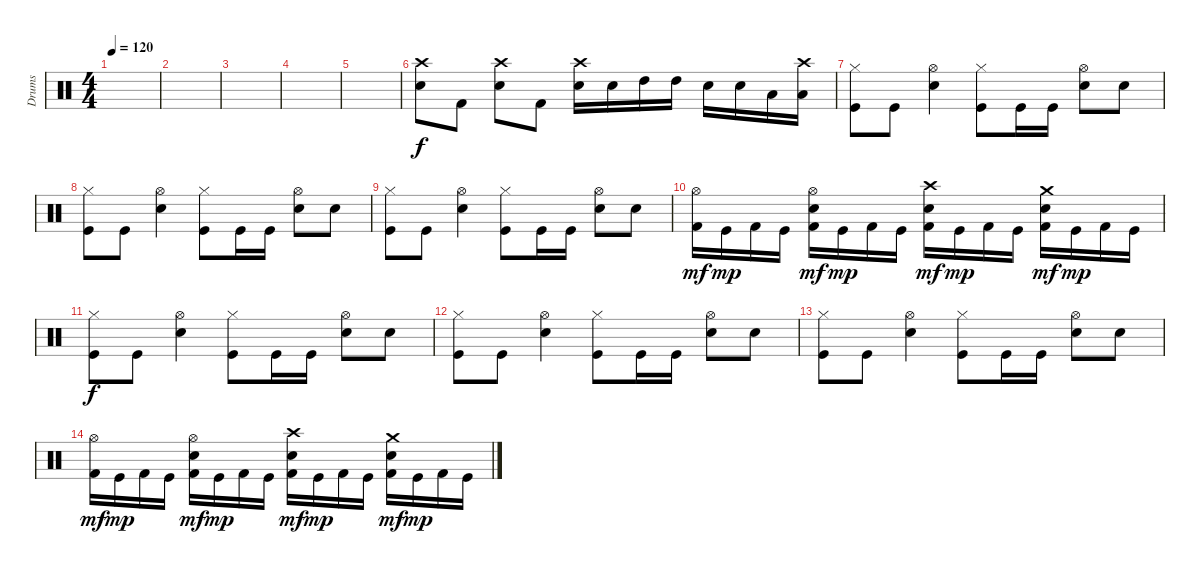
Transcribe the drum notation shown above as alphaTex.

\track ("Drums" "Drums") {instrument percussion}
\staff {score}
\articulation defaults
\ts (4 4)
\tempo 120
\clef neutral
\ks c
|
|
|
|
|
("Crash high (hit)" "Snare (hit) 2").8{dy f} "Kick (hit) 2".8 ("Crash high (hit)" "Snare (hit) 2").8 "Kick (hit) 2".8 ("Crash high (hit)" "Snare (hit) 2").16 "Snare (hit) 2".16 "High Tom (hit)".16 "High Tom (hit)".16 "Snare (hit) 2".16 "Snare (hit) 2".16 "Low Tom (hit)".16 ("Crash high (hit)" "Low Tom (hit)").16 |
("Hi-Hat (closed)" "Kick (hit)").8 "Kick (hit)".8 ("Hi-Hat (open)" "Snare (hit) 2").4 ("Hi-Hat (closed)" "Kick (hit)").8 "Kick (hit)".16 "Kick (hit)".16 ("Hi-Hat (open)" "Snare (hit) 2").8 "Snare (hit) 2".8 |
("Hi-Hat (closed)" "Kick (hit)").8 "Kick (hit)".8 ("Hi-Hat (open)" "Snare (hit) 2").4 ("Hi-Hat (closed)" "Kick (hit)").8 "Kick (hit)".16 "Kick (hit)".16 ("Hi-Hat (open)" "Snare (hit) 2").8 "Snare (hit) 2".8 |
("Hi-Hat (closed)" "Kick (hit)").8 "Kick (hit)".8 ("Hi-Hat (open)" "Snare (hit) 2").4 ("Hi-Hat (closed)" "Kick (hit)").8 "Kick (hit)".16 "Kick (hit)".16 ("Hi-Hat (open)" "Snare (hit) 2").8 "Snare (hit) 2".8 |
("Hi-Hat (open)" "Kick (hit) 2").16{dy mf} "Kick (hit)".16{dy mp} "Kick (hit) 2".16 "Kick (hit)".16 ("Hi-Hat (open)" "Snare (hit) 2" "Kick (hit) 2").16{dy mf} "Kick (hit)".16{dy mp} "Kick (hit) 2".16 "Kick (hit)".16 ("Crash high (hit)" "Snare (hit) 2" "Kick (hit) 2").16{dy mf} "Kick (hit)".16{dy mp} "Kick (hit) 2".16 "Kick (hit)".16 ("Crash medium (hit)" "Snare (hit) 2" "Kick (hit) 2").16{dy mf} "Kick (hit)".16{dy mp} "Kick (hit) 2".16 "Kick (hit)".16 |
("Hi-Hat (closed)" "Kick (hit)").8{dy f} "Kick (hit)".8 ("Hi-Hat (open)" "Snare (hit) 2").4 ("Hi-Hat (closed)" "Kick (hit)").8 "Kick (hit)".16 "Kick (hit)".16 ("Hi-Hat (open)" "Snare (hit) 2").8 "Snare (hit) 2".8 |
("Hi-Hat (closed)" "Kick (hit)").8 "Kick (hit)".8 ("Hi-Hat (open)" "Snare (hit) 2").4 ("Hi-Hat (closed)" "Kick (hit)").8 "Kick (hit)".16 "Kick (hit)".16 ("Hi-Hat (open)" "Snare (hit) 2").8 "Snare (hit) 2".8 |
("Hi-Hat (closed)" "Kick (hit)").8 "Kick (hit)".8 ("Hi-Hat (open)" "Snare (hit) 2").4 ("Hi-Hat (closed)" "Kick (hit)").8 "Kick (hit)".16 "Kick (hit)".16 ("Hi-Hat (open)" "Snare (hit) 2").8 "Snare (hit) 2".8 |
("Hi-Hat (open)" "Kick (hit) 2").16{dy mf} "Kick (hit)".16{dy mp} "Kick (hit) 2".16 "Kick (hit)".16 ("Hi-Hat (open)" "Snare (hit) 2" "Kick (hit) 2").16{dy mf} "Kick (hit)".16{dy mp} "Kick (hit) 2".16 "Kick (hit)".16 ("Crash high (hit)" "Snare (hit) 2" "Kick (hit) 2").16{dy mf} "Kick (hit)".16{dy mp} "Kick (hit) 2".16 "Kick (hit)".16 ("Crash medium (hit)" "Snare (hit) 2" "Kick (hit) 2").16{dy mf} "Kick (hit)".16{dy mp} "Kick (hit) 2".16 "Kick (hit)".16
